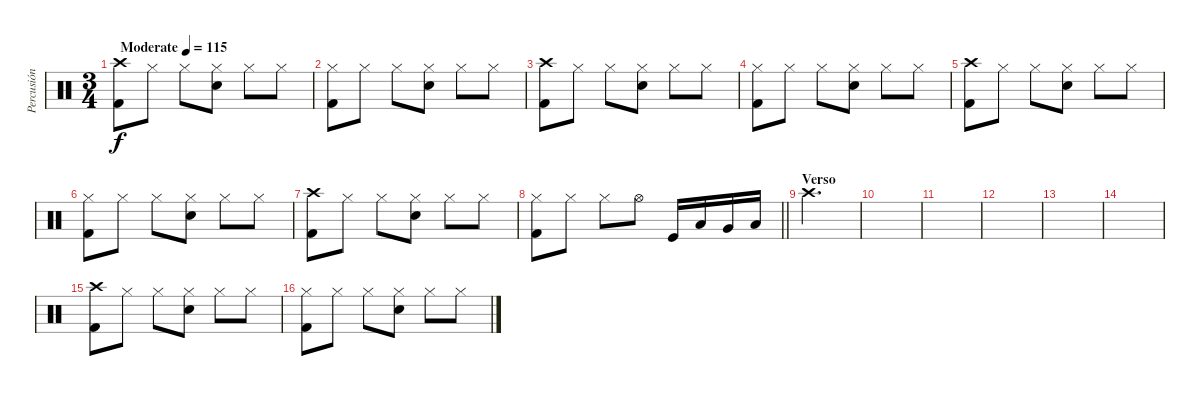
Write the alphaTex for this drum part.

\track ("Percusión" "Percusión") {instrument percussion}
\staff {score}
\articulation defaults
\ts (3 4)
\tempo (115 "Moderate")
\clef neutral
\ks c
("Crash high (hit)" "Kick (hit) 2").8{dy f} "Hi-Hat (closed)".8 "Hi-Hat (closed)".8 ("Hi-Hat (closed)" "Electric Snare (hit)").8 "Hi-Hat (closed)".8 "Hi-Hat (closed)".8 |
("Hi-Hat (closed)" "Kick (hit) 2").8 "Hi-Hat (closed)".8 "Hi-Hat (closed)".8 ("Hi-Hat (closed)" "Electric Snare (hit)").8 "Hi-Hat (closed)".8 "Hi-Hat (closed)".8 |
("Crash high (hit)" "Kick (hit) 2").8 "Hi-Hat (closed)".8 "Hi-Hat (closed)".8 ("Hi-Hat (closed)" "Electric Snare (hit)").8 "Hi-Hat (closed)".8 "Hi-Hat (closed)".8 |
("Hi-Hat (closed)" "Kick (hit) 2").8 "Hi-Hat (closed)".8 "Hi-Hat (closed)".8 ("Hi-Hat (closed)" "Electric Snare (hit)").8 "Hi-Hat (closed)".8 "Hi-Hat (closed)".8 |
("Crash high (hit)" "Kick (hit) 2").8 "Hi-Hat (closed)".8 "Hi-Hat (closed)".8 ("Hi-Hat (closed)" "Electric Snare (hit)").8 "Hi-Hat (closed)".8 "Hi-Hat (closed)".8 |
("Hi-Hat (closed)" "Kick (hit) 2").8 "Hi-Hat (closed)".8 "Hi-Hat (closed)".8 ("Hi-Hat (closed)" "Electric Snare (hit)").8 "Hi-Hat (closed)".8 "Hi-Hat (closed)".8 |
("Crash high (hit)" "Kick (hit) 2").8 "Hi-Hat (closed)".8 "Hi-Hat (closed)".8 ("Hi-Hat (closed)" "Electric Snare (hit)").8 "Hi-Hat (closed)".8 "Hi-Hat (closed)".8 |
\barLineRight lightlight
("Hi-Hat (closed)" "Kick (hit) 2").8 "Hi-Hat (closed)".8 "Hi-Hat (closed)".8 "Hi-Hat (open)".8 "Kick (hit)".16 "Low Floor Tom (hit)".16 "Very Low Tom (hit)".16 "Low Tom (hit)".16 |
\section ("" "Verso")
"Crash high (hit)".2{d} |
|
|
|
|
|
("Crash high (hit)" "Kick (hit) 2").8 "Hi-Hat (closed)".8 "Hi-Hat (closed)".8 ("Hi-Hat (closed)" "Electric Snare (hit)").8 "Hi-Hat (closed)".8 "Hi-Hat (closed)".8 |
("Hi-Hat (closed)" "Kick (hit) 2").8 "Hi-Hat (closed)".8 "Hi-Hat (closed)".8 ("Hi-Hat (closed)" "Electric Snare (hit)").8 "Hi-Hat (closed)".8 "Hi-Hat (closed)".8
